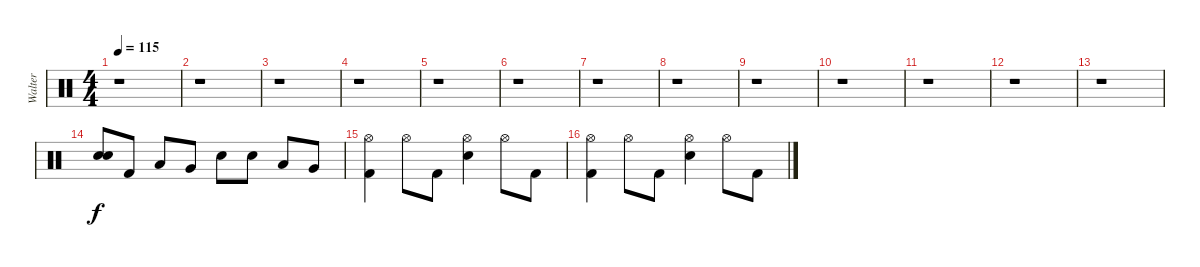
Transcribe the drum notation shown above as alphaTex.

\track ("Walter" "Walter") {instrument percussion}
\staff {score}
\articulation defaults
\ts (4 4)
\tempo 115
\clef neutral
\ks c
r.1{dy f} |
r.1 |
r.1 |
r.1 |
r.1 |
r.1 |
r.1 |
r.1 |
r.1 |
r.1 |
r.1 |
r.1 |
r.1 |
("Snare (hit) 2" "Snare (hit) 2").8{bd 240} "Kick (hit) 2".8 "Low Tom (hit)".8 "Very Low Tom (hit)".8 "Snare (hit) 2".8 "Snare (hit) 2".8 "Low Tom (hit)".8 "Very Low Tom (hit)".8 |
("Kick (hit) 2" "Hi-Hat (open)").4 "Hi-Hat (open)".8 "Kick (hit) 2".8 ("Snare (hit) 2" "Hi-Hat (open)").4 "Hi-Hat (open)".8 "Kick (hit) 2".8 |
("Kick (hit) 2" "Hi-Hat (open)").4 "Hi-Hat (open)".8 "Kick (hit) 2".8 ("Snare (hit) 2" "Hi-Hat (open)").4 "Hi-Hat (open)".8 "Kick (hit) 2".8
